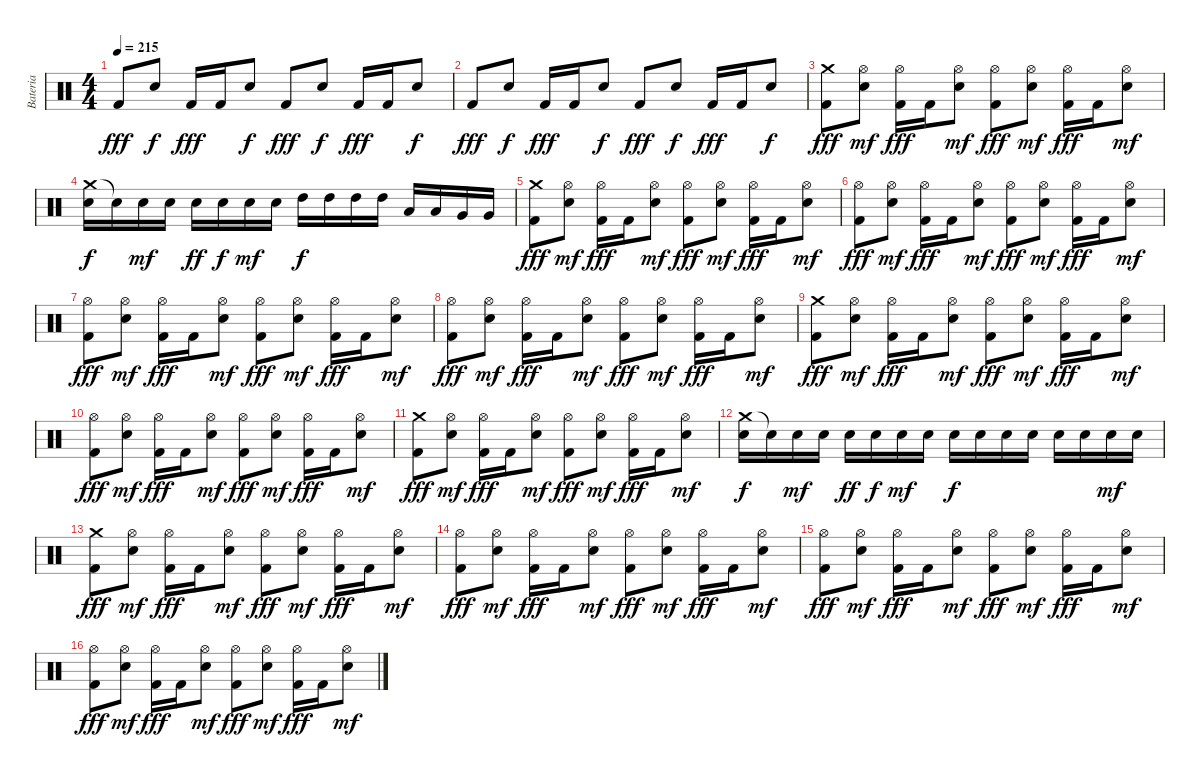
\track ("Bateria" "Bateria") {instrument percussion}
\staff {score}
\articulation defaults
\ts (4 4)
\tempo 215
\clef neutral
\ks c "Kick (hit) 2".8{dy fff} "Electric Snare (hit)".8{dy f} "Kick (hit) 2".16{dy fff} "Kick (hit) 2".16 "Electric Snare (hit)".8{dy f} "Kick (hit) 2".8{dy fff} "Electric Snare (hit)".8{dy f} "Kick (hit) 2".16{dy fff} "Kick (hit) 2".16 "Electric Snare (hit)".8{dy f}
|
"Kick (hit) 2".8{dy fff} "Electric Snare (hit)".8{dy f} "Kick (hit) 2".16{dy fff} "Kick (hit) 2".16 "Electric Snare (hit)".8{dy f} "Kick (hit) 2".8{dy fff} "Electric Snare (hit)".8{dy f} "Kick (hit) 2".16{dy fff} "Kick (hit) 2".16 "Electric Snare (hit)".8{dy f} |
("Crash medium (hit)" "Kick (hit) 2").8{dy fff} ("Hi-Hat (open)" "Electric Snare (hit)").8{dy mf} ("Hi-Hat (open)" "Kick (hit) 2").16{dy fff} "Kick (hit) 2".16 ("Hi-Hat (open)" "Electric Snare (hit)").8{dy mf} ("Hi-Hat (open)" "Kick (hit) 2").8{dy fff} ("Hi-Hat (open)" "Electric Snare (hit)").8{dy mf} ("Hi-Hat (open)" "Kick (hit) 2").16{dy fff} "Kick (hit) 2".16 ("Hi-Hat (open)" "Electric Snare (hit)").8{dy mf} |
("Crash medium (hit)" "Electric Snare (hit)").16{dy f} "Snare (hit)"{t}.16 "Electric Snare (hit)".16{dy mf} "Electric Snare (hit)".16 "Electric Snare (hit)".16{dy ff} "Electric Snare (hit)".16{dy f} "Electric Snare (hit)".16{dy mf} "Electric Snare (hit)".16 "High Tom (hit)".16{dy f} "High Tom (hit)".16 "High Tom (hit)".16 "High Tom (hit)".16 "Low Tom (hit)".16 "Low Tom (hit)".16 "Very Low Tom (hit)".16 "Very Low Tom (hit)".16 |
("Crash medium (hit)" "Kick (hit) 2").8{dy fff} ("Hi-Hat (open)" "Electric Snare (hit)").8{dy mf} ("Hi-Hat (open)" "Kick (hit) 2").16{dy fff} "Kick (hit) 2".16 ("Hi-Hat (open)" "Electric Snare (hit)").8{dy mf} ("Hi-Hat (open)" "Kick (hit) 2").8{dy fff} ("Hi-Hat (open)" "Electric Snare (hit)").8{dy mf} ("Hi-Hat (open)" "Kick (hit) 2").16{dy fff} "Kick (hit) 2".16 ("Hi-Hat (open)" "Electric Snare (hit)").8{dy mf} |
("Hi-Hat (open)" "Kick (hit) 2").8{dy fff} ("Hi-Hat (open)" "Electric Snare (hit)").8{dy mf} ("Hi-Hat (open)" "Kick (hit) 2").16{dy fff} "Kick (hit) 2".16 ("Hi-Hat (open)" "Electric Snare (hit)").8{dy mf} ("Hi-Hat (open)" "Kick (hit) 2").8{dy fff} ("Hi-Hat (open)" "Electric Snare (hit)").8{dy mf} ("Hi-Hat (open)" "Kick (hit) 2").16{dy fff} "Kick (hit) 2".16 ("Hi-Hat (open)" "Electric Snare (hit)").8{dy mf} |
("Hi-Hat (open)" "Kick (hit) 2").8{dy fff} ("Hi-Hat (open)" "Electric Snare (hit)").8{dy mf} ("Hi-Hat (open)" "Kick (hit) 2").16{dy fff} "Kick (hit) 2".16 ("Hi-Hat (open)" "Electric Snare (hit)").8{dy mf} ("Hi-Hat (open)" "Kick (hit) 2").8{dy fff} ("Hi-Hat (open)" "Electric Snare (hit)").8{dy mf} ("Hi-Hat (open)" "Kick (hit) 2").16{dy fff} "Kick (hit) 2".16 ("Hi-Hat (open)" "Electric Snare (hit)").8{dy mf} |
("Hi-Hat (open)" "Kick (hit) 2").8{dy fff} ("Hi-Hat (open)" "Electric Snare (hit)").8{dy mf} ("Hi-Hat (open)" "Kick (hit) 2").16{dy fff} "Kick (hit) 2".16 ("Hi-Hat (open)" "Electric Snare (hit)").8{dy mf} ("Hi-Hat (open)" "Kick (hit) 2").8{dy fff} ("Hi-Hat (open)" "Electric Snare (hit)").8{dy mf} ("Hi-Hat (open)" "Kick (hit) 2").16{dy fff} "Kick (hit) 2".16 ("Hi-Hat (open)" "Electric Snare (hit)").8{dy mf} |
("Crash medium (hit)" "Kick (hit) 2").8{dy fff} ("Hi-Hat (open)" "Electric Snare (hit)").8{dy mf} ("Hi-Hat (open)" "Kick (hit) 2").16{dy fff} "Kick (hit) 2".16 ("Hi-Hat (open)" "Electric Snare (hit)").8{dy mf} ("Hi-Hat (open)" "Kick (hit) 2").8{dy fff} ("Hi-Hat (open)" "Electric Snare (hit)").8{dy mf} ("Hi-Hat (open)" "Kick (hit) 2").16{dy fff} "Kick (hit) 2".16 ("Hi-Hat (open)" "Electric Snare (hit)").8{dy mf} |
("Hi-Hat (open)" "Kick (hit) 2").8{dy fff} ("Hi-Hat (open)" "Electric Snare (hit)").8{dy mf} ("Hi-Hat (open)" "Kick (hit) 2").16{dy fff} "Kick (hit) 2".16 ("Hi-Hat (open)" "Electric Snare (hit)").8{dy mf} ("Hi-Hat (open)" "Kick (hit) 2").8{dy fff} ("Hi-Hat (open)" "Electric Snare (hit)").8{dy mf} ("Hi-Hat (open)" "Kick (hit) 2").16{dy fff} "Kick (hit) 2".16 ("Hi-Hat (open)" "Electric Snare (hit)").8{dy mf} |
("Crash medium (hit)" "Kick (hit) 2").8{dy fff} ("Hi-Hat (open)" "Electric Snare (hit)").8{dy mf} ("Hi-Hat (open)" "Kick (hit) 2").16{dy fff} "Kick (hit) 2".16 ("Hi-Hat (open)" "Electric Snare (hit)").8{dy mf} ("Hi-Hat (open)" "Kick (hit) 2").8{dy fff} ("Hi-Hat (open)" "Electric Snare (hit)").8{dy mf} ("Hi-Hat (open)" "Kick (hit) 2").16{dy fff} "Kick (hit) 2".16 ("Hi-Hat (open)" "Electric Snare (hit)").8{dy mf} |
("Crash medium (hit)" "Electric Snare (hit)").16{dy f} "Snare (hit)"{t}.16 "Electric Snare (hit)".16{dy mf} "Electric Snare (hit)".16 "Electric Snare (hit)".16{dy ff} "Electric Snare (hit)".16{dy f} "Electric Snare (hit)".16{dy mf} "Electric Snare (hit)".16 "Electric Snare (hit)".16{dy f} "Electric Snare (hit)".16 "Electric Snare (hit)".16 "Electric Snare (hit)".16 "Electric Snare (hit)".16 "Electric Snare (hit)".16 "Electric Snare (hit)".16{dy mf} "Electric Snare (hit)".16 |
("Crash medium (hit)" "Kick (hit) 2").8{dy fff} ("Hi-Hat (open)" "Electric Snare (hit)").8{dy mf} ("Hi-Hat (open)" "Kick (hit) 2").16{dy fff} "Kick (hit) 2".16 ("Hi-Hat (open)" "Electric Snare (hit)").8{dy mf} ("Hi-Hat (open)" "Kick (hit) 2").8{dy fff} ("Hi-Hat (open)" "Electric Snare (hit)").8{dy mf} ("Hi-Hat (open)" "Kick (hit) 2").16{dy fff} "Kick (hit) 2".16 ("Hi-Hat (open)" "Electric Snare (hit)").8{dy mf} |
("Hi-Hat (open)" "Kick (hit) 2").8{dy fff} ("Hi-Hat (open)" "Electric Snare (hit)").8{dy mf} ("Hi-Hat (open)" "Kick (hit) 2").16{dy fff} "Kick (hit) 2".16 ("Hi-Hat (open)" "Electric Snare (hit)").8{dy mf} ("Hi-Hat (open)" "Kick (hit) 2").8{dy fff} ("Hi-Hat (open)" "Electric Snare (hit)").8{dy mf} ("Hi-Hat (open)" "Kick (hit) 2").16{dy fff} "Kick (hit) 2".16 ("Hi-Hat (open)" "Electric Snare (hit)").8{dy mf} |
("Hi-Hat (open)" "Kick (hit) 2").8{dy fff} ("Hi-Hat (open)" "Electric Snare (hit)").8{dy mf} ("Hi-Hat (open)" "Kick (hit) 2").16{dy fff} "Kick (hit) 2".16 ("Hi-Hat (open)" "Electric Snare (hit)").8{dy mf} ("Hi-Hat (open)" "Kick (hit) 2").8{dy fff} ("Hi-Hat (open)" "Electric Snare (hit)").8{dy mf} ("Hi-Hat (open)" "Kick (hit) 2").16{dy fff} "Kick (hit) 2".16 ("Hi-Hat (open)" "Electric Snare (hit)").8{dy mf} |
("Hi-Hat (open)" "Kick (hit) 2").8{dy fff} ("Hi-Hat (open)" "Electric Snare (hit)").8{dy mf} ("Hi-Hat (open)" "Kick (hit) 2").16{dy fff} "Kick (hit) 2".16 ("Hi-Hat (open)" "Electric Snare (hit)").8{dy mf} ("Hi-Hat (open)" "Kick (hit) 2").8{dy fff} ("Hi-Hat (open)" "Electric Snare (hit)").8{dy mf} ("Hi-Hat (open)" "Kick (hit) 2").16{dy fff} "Kick (hit) 2".16 ("Hi-Hat (open)" "Electric Snare (hit)").8{dy mf}
